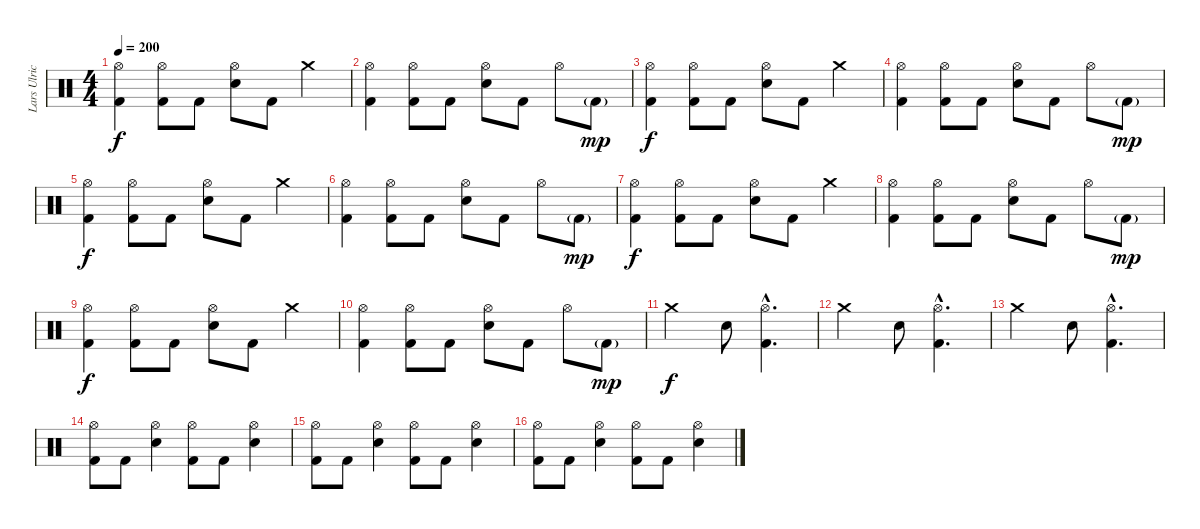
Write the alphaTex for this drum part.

\track ("Lars Ulrich" "Lars Ulric") {instrument percussion}
\staff {score}
\articulation defaults
\ts (4 4)
\tempo 200
\clef neutral
\ks c
("Hi-Hat (open)" "Kick (hit) 2").4{dy f} ("Hi-Hat (open)" "Kick (hit) 2").8 "Kick (hit) 2".8 ("Hi-Hat (open)" "Electric Snare (hit)").8 "Kick (hit) 2".8 "Crash medium (hit)".4 |
("Hi-Hat (open)" "Kick (hit) 2").4 ("Hi-Hat (open)" "Kick (hit) 2").8 "Kick (hit) 2".8 ("Hi-Hat (open)" "Electric Snare (hit)").8 "Kick (hit) 2".8 "Hi-Hat (open)".8 "Kick (hit) 2"{g}.8{dy mp} |
("Hi-Hat (open)" "Kick (hit) 2").4{dy f} ("Hi-Hat (open)" "Kick (hit) 2").8 "Kick (hit) 2".8 ("Hi-Hat (open)" "Electric Snare (hit)").8 "Kick (hit) 2".8 "Crash medium (hit)".4 |
("Hi-Hat (open)" "Kick (hit) 2").4 ("Hi-Hat (open)" "Kick (hit) 2").8 "Kick (hit) 2".8 ("Hi-Hat (open)" "Electric Snare (hit)").8 "Kick (hit) 2".8 "Hi-Hat (open)".8 "Kick (hit) 2"{g}.8{dy mp} |
("Hi-Hat (open)" "Kick (hit) 2").4{dy f} ("Hi-Hat (open)" "Kick (hit) 2").8 "Kick (hit) 2".8 ("Hi-Hat (open)" "Electric Snare (hit)").8 "Kick (hit) 2".8 "Crash medium (hit)".4 |
("Hi-Hat (open)" "Kick (hit) 2").4 ("Hi-Hat (open)" "Kick (hit) 2").8 "Kick (hit) 2".8 ("Hi-Hat (open)" "Electric Snare (hit)").8 "Kick (hit) 2".8 "Hi-Hat (open)".8 "Kick (hit) 2"{g}.8{dy mp} |
("Hi-Hat (open)" "Kick (hit) 2").4{dy f} ("Hi-Hat (open)" "Kick (hit) 2").8 "Kick (hit) 2".8 ("Hi-Hat (open)" "Electric Snare (hit)").8 "Kick (hit) 2".8 "Crash medium (hit)".4 |
("Hi-Hat (open)" "Kick (hit) 2").4 ("Hi-Hat (open)" "Kick (hit) 2").8 "Kick (hit) 2".8 ("Hi-Hat (open)" "Electric Snare (hit)").8 "Kick (hit) 2".8 "Hi-Hat (open)".8 "Kick (hit) 2"{g}.8{dy mp} |
("Hi-Hat (open)" "Kick (hit) 2").4{dy f} ("Hi-Hat (open)" "Kick (hit) 2").8 "Kick (hit) 2".8 ("Hi-Hat (open)" "Electric Snare (hit)").8 "Kick (hit) 2".8 "Crash medium (hit)".4 |
("Hi-Hat (open)" "Kick (hit) 2").4 ("Hi-Hat (open)" "Kick (hit) 2").8 "Kick (hit) 2".8 ("Hi-Hat (open)" "Electric Snare (hit)").8 "Kick (hit) 2".8 "Hi-Hat (open)".8 "Kick (hit) 2"{g}.8{dy mp} |
"Crash medium (hit)".2{dy f} "Electric Snare (hit)".8 ("Hi-Hat (open)"{hac} "Kick (hit) 2"{hac}).4{d} |
"Crash medium (hit)".2 "Electric Snare (hit)".8 ("Hi-Hat (open)"{hac} "Kick (hit) 2"{hac}).4{d} |
"Crash medium (hit)".2 "Electric Snare (hit)".8 ("Hi-Hat (open)"{hac} "Kick (hit) 2"{hac}).4{d} |
("Hi-Hat (open)" "Kick (hit) 2").8 "Kick (hit) 2".8 ("Hi-Hat (open)" "Electric Snare (hit)").4 ("Hi-Hat (open)" "Kick (hit) 2").8 "Kick (hit) 2".8 ("Hi-Hat (open)" "Electric Snare (hit)").4 |
("Hi-Hat (open)" "Kick (hit) 2").8 "Kick (hit) 2".8 ("Hi-Hat (open)" "Electric Snare (hit)").4 ("Hi-Hat (open)" "Kick (hit) 2").8 "Kick (hit) 2".8 ("Hi-Hat (open)" "Electric Snare (hit)").4 |
("Hi-Hat (open)" "Kick (hit) 2").8 "Kick (hit) 2".8 ("Hi-Hat (open)" "Electric Snare (hit)").4 ("Hi-Hat (open)" "Kick (hit) 2").8 "Kick (hit) 2".8 ("Hi-Hat (open)" "Electric Snare (hit)").4
